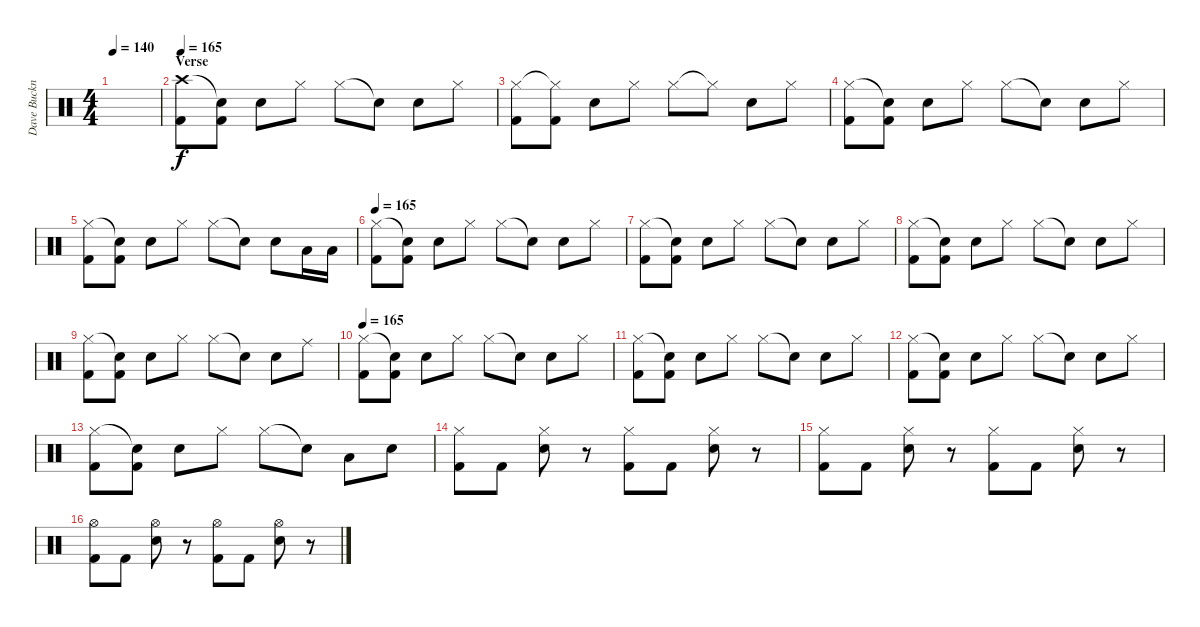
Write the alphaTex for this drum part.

\track ("Dave Buckner " "Dave Buckn") {instrument percussion}
\staff {score}
\articulation defaults
\ts (4 4)
\tempo 140
\clef neutral
\ks c
|
\section ("" "Verse")
\tempo 165
("Crash high (hit)" "Kick (hit) 2").8 ("Snare (hit)"{t} "Kick (hit) 2").8 "Snare (hit) 2".8 "Hi-Hat (closed)".8 "Hi-Hat (closed)".8 "Snare (hit)"{t}.8 "Snare (hit) 2".8 "Hi-Hat (closed)".8 |
("Hi-Hat (closed)" "Kick (hit) 2").8 ("Hi-Hat (closed)"{t} "Kick (hit) 2").8 "Snare (hit) 2".8 "Hi-Hat (closed)".8 "Hi-Hat (closed)".8 "Hi-Hat (closed)"{t}.8 "Snare (hit) 2".8 "Hi-Hat (closed)".8 |
("Hi-Hat (closed)" "Kick (hit) 2").8 ("Snare (hit)"{t} "Kick (hit) 2").8 "Snare (hit) 2".8 "Hi-Hat (closed)".8 "Hi-Hat (closed)".8 "Snare (hit)"{t}.8 "Snare (hit) 2".8 "Hi-Hat (closed)".8 |
("Hi-Hat (closed)" "Kick (hit) 2").8 ("Snare (hit)"{t} "Kick (hit) 2").8 "Snare (hit) 2".8 "Hi-Hat (closed)".8 "Hi-Hat (closed)".8 "Snare (hit)"{t}.8 "Snare (hit) 2".8 "Low Tom (hit)".16 "Low Tom (hit)".16 |
\tempo 165
("Hi-Hat (closed)" "Kick (hit) 2").8 ("Snare (hit)"{t} "Kick (hit) 2").8 "Snare (hit) 2".8 "Hi-Hat (closed)".8 "Hi-Hat (closed)".8 "Snare (hit)"{t}.8 "Snare (hit) 2".8 "Hi-Hat (closed)".8 |
("Hi-Hat (closed)" "Kick (hit) 2").8 ("Snare (hit)"{t} "Kick (hit) 2").8 "Snare (hit) 2".8 "Hi-Hat (closed)".8 "Hi-Hat (closed)".8 "Snare (hit)"{t}.8 "Snare (hit) 2".8 "Hi-Hat (closed)".8 |
("Hi-Hat (closed)" "Kick (hit) 2").8 ("Snare (hit)"{t} "Kick (hit) 2").8 "Snare (hit) 2".8 "Hi-Hat (closed)".8 "Hi-Hat (closed)".8 "Snare (hit)"{t}.8 "Snare (hit) 2".8 "Hi-Hat (closed)".8 |
("Hi-Hat (closed)" "Kick (hit) 2").8 ("Snare (hit)"{t} "Kick (hit) 2").8 "Snare (hit) 2".8 "Hi-Hat (closed)".8 "Hi-Hat (closed)".8 "Snare (hit)"{t}.8 "Snare (hit) 2".8 "Ride (middle)".8 |
\tempo 165
("Hi-Hat (closed)" "Kick (hit) 2").8 ("Snare (hit)"{t} "Kick (hit) 2").8 "Snare (hit) 2".8 "Hi-Hat (closed)".8 "Hi-Hat (closed)".8 "Snare (hit)"{t}.8 "Snare (hit) 2".8 "Hi-Hat (closed)".8 |
("Hi-Hat (closed)" "Kick (hit) 2").8 ("Snare (hit)"{t} "Kick (hit) 2").8 "Snare (hit) 2".8 "Hi-Hat (closed)".8 "Hi-Hat (closed)".8 "Snare (hit)"{t}.8 "Snare (hit) 2".8 "Hi-Hat (closed)".8 |
("Hi-Hat (closed)" "Kick (hit) 2").8 ("Snare (hit)"{t} "Kick (hit) 2").8 "Snare (hit) 2".8 "Hi-Hat (closed)".8 "Hi-Hat (closed)".8 "Snare (hit)"{t}.8 "Snare (hit) 2".8 "Hi-Hat (closed)".8 |
("Hi-Hat (closed)" "Kick (hit) 2").8 ("Snare (hit)"{t} "Kick (hit) 2").8 "Snare (hit) 2".8 "Hi-Hat (closed)".8 "Hi-Hat (closed)".8 "Snare (hit)"{t}.8 "Low Tom (hit)".8 "Snare (hit) 2".8 |
("Hi-Hat (closed)" "Kick (hit) 2").8 "Kick (hit) 2".8 ("Hi-Hat (closed)" "Snare (hit) 2").8 r.8 ("Hi-Hat (closed)" "Kick (hit) 2").8 "Kick (hit) 2".8 ("Hi-Hat (closed)" "Snare (hit) 2").8 r.8 |
("Hi-Hat (closed)" "Kick (hit) 2").8 "Kick (hit) 2".8 ("Hi-Hat (closed)" "Snare (hit) 2").8 r.8 ("Hi-Hat (closed)" "Kick (hit) 2").8 "Kick (hit) 2".8 ("Hi-Hat (closed)" "Snare (hit) 2").8 r.8 |
("Hi-Hat (open)" "Kick (hit) 2").8 "Kick (hit) 2".8 ("Hi-Hat (open)" "Snare (hit) 2").8 r.8 ("Hi-Hat (open)" "Kick (hit) 2").8 "Kick (hit) 2".8 ("Hi-Hat (open)" "Snare (hit) 2").8 r.8
